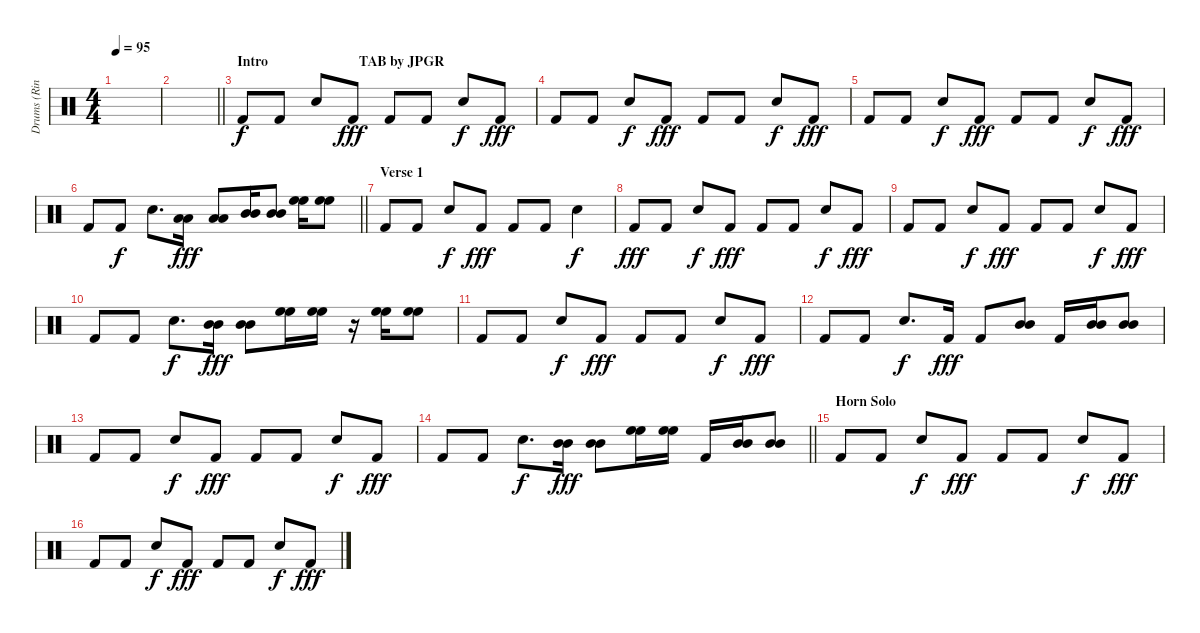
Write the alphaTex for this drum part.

\track ("Drums (Ringo Starr)" "Drums (Rin") {instrument percussion}
\staff {score}
\articulation defaults
\ts (4 4)
\tempo 95
\clef neutral
\ks c
|
\barLineRight lightlight
|
\section ("" "Intro                          TAB by JPGR")
"Kick (hit) 2".8 "Kick (hit) 2".8 "Snare (hit) 2".8{dy f} "Kick (hit) 2".8{dy fff} "Kick (hit) 2".8 "Kick (hit) 2".8 "Snare (hit) 2".8{dy f} "Kick (hit) 2".8{dy fff} |
"Kick (hit) 2".8 "Kick (hit) 2".8 "Snare (hit) 2".8{dy f} "Kick (hit) 2".8{dy fff} "Kick (hit) 2".8 "Kick (hit) 2".8 "Snare (hit) 2".8{dy f} "Kick (hit) 2".8{dy fff} |
"Kick (hit) 2".8 "Kick (hit) 2".8 "Snare (hit) 2".8{dy f} "Kick (hit) 2".8{dy fff} "Kick (hit) 2".8 "Kick (hit) 2".8 "Snare (hit) 2".8{dy f} "Kick (hit) 2".8{dy fff} |
\barLineRight lightlight "Kick (hit) 2".8 "Kick (hit) 2".8{dy f} "Snare (hit) 2".8{d}
("Low Tom (hit)" "Low Tom (hit)").16{dy fff} ("Low Tom (hit)" "Low Tom (hit)").8 ("Mid Tom (hit)" "Mid Tom (hit)").16 ("Mid Tom (hit)" "Mid Tom (hit)").8 ("High Floor Tom (hit)" "High Floor Tom (hit)").16 ("High Floor Tom (hit)" "High Floor Tom (hit)").8 |
\section ("" "Verse 1")
"Kick (hit) 2".8 "Kick (hit) 2".8 "Snare (hit) 2".8{dy f} "Kick (hit) 2".8{dy fff} "Kick (hit) 2".8 "Kick (hit) 2".8 "Snare (hit) 2".4{dy f} |
"Kick (hit) 2".8{dy fff} "Kick (hit) 2".8 "Snare (hit) 2".8{dy f} "Kick (hit) 2".8{dy fff} "Kick (hit) 2".8 "Kick (hit) 2".8 "Snare (hit) 2".8{dy f} "Kick (hit) 2".8{dy fff} |
"Kick (hit) 2".8 "Kick (hit) 2".8 "Snare (hit) 2".8{dy f} "Kick (hit) 2".8{dy fff} "Kick (hit) 2".8 "Kick (hit) 2".8 "Snare (hit) 2".8{dy f} "Kick (hit) 2".8{dy fff} |
"Kick (hit) 2".8 "Kick (hit) 2".8 "Snare (hit) 2".8{d dy f} ("Mid Tom (hit)" "Mid Tom (hit)").16{dy fff} ("Mid Tom (hit)" "Mid Tom (hit)").8 ("High Floor Tom (hit)" "High Floor Tom (hit)").16 ("High Floor Tom (hit)" "High Floor Tom (hit)").16 r.16 ("High Floor Tom (hit)" "High Floor Tom (hit)").16 ("High Floor Tom (hit)" "High Floor Tom (hit)").8 |
"Kick (hit) 2".8 "Kick (hit) 2".8 "Snare (hit) 2".8{dy f} "Kick (hit) 2".8{dy fff} "Kick (hit) 2".8 "Kick (hit) 2".8 "Snare (hit) 2".8{dy f} "Kick (hit) 2".8{dy fff} |
"Kick (hit) 2".8 "Kick (hit) 2".8 "Snare (hit) 2".8{d dy f} "Kick (hit) 2".16{dy fff} "Kick (hit) 2".8 ("Mid Tom (hit)" "Mid Tom (hit)").8 "Kick (hit) 2".16 ("Mid Tom (hit)" "Mid Tom (hit)").16 ("Mid Tom (hit)" "Mid Tom (hit)").8 |
"Kick (hit) 2".8 "Kick (hit) 2".8 "Snare (hit) 2".8{dy f} "Kick (hit) 2".8{dy fff} "Kick (hit) 2".8 "Kick (hit) 2".8 "Snare (hit) 2".8{dy f} "Kick (hit) 2".8{dy fff} |
\barLineRight lightlight "Kick (hit) 2".8 "Kick (hit) 2".8 "Snare (hit) 2".8{d dy f}
("Mid Tom (hit)" "Mid Tom (hit)").16{dy fff} ("Mid Tom (hit)" "Mid Tom (hit)").8 ("High Floor Tom (hit)" "High Floor Tom (hit)").16 ("High Floor Tom (hit)" "High Floor Tom (hit)").16 "Kick (hit) 2".16 ("Mid Tom (hit)" "Mid Tom (hit)").16 ("Mid Tom (hit)" "Mid Tom (hit)").8 |
\section ("" "Horn Solo")
"Kick (hit) 2".8 "Kick (hit) 2".8 "Snare (hit) 2".8{dy f} "Kick (hit) 2".8{dy fff} "Kick (hit) 2".8 "Kick (hit) 2".8 "Snare (hit) 2".8{dy f} "Kick (hit) 2".8{dy fff} |
"Kick (hit) 2".8 "Kick (hit) 2".8 "Snare (hit) 2".8{dy f} "Kick (hit) 2".8{dy fff} "Kick (hit) 2".8 "Kick (hit) 2".8 "Snare (hit) 2".8{dy f} "Kick (hit) 2".8{dy fff}
